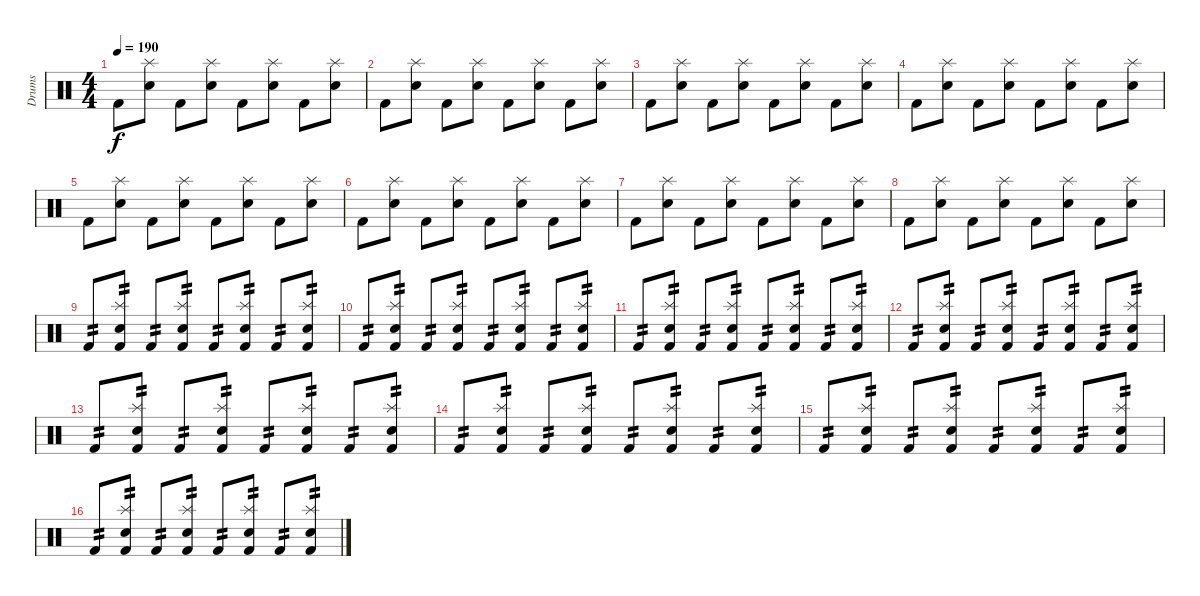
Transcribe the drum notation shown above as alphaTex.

\track ("Drums" "Drums") {instrument percussion}
\staff {score}
\articulation defaults
\ts (4 4)
\tempo 190
\clef neutral
\ks c "Kick (hit) 2".8{dy f}
("Splash (hit)" "Snare (hit) 2").8 "Kick (hit) 2".8 ("Splash (hit)" "Snare (hit) 2").8 "Kick (hit) 2".8 ("Splash (hit)" "Snare (hit) 2").8 "Kick (hit) 2".8 ("Splash (hit)" "Snare (hit) 2").8 |
"Kick (hit) 2".8 ("Splash (hit)" "Snare (hit) 2").8 "Kick (hit) 2".8 ("Splash (hit)" "Snare (hit) 2").8 "Kick (hit) 2".8 ("Splash (hit)" "Snare (hit) 2").8 "Kick (hit) 2".8 ("Splash (hit)" "Snare (hit) 2").8 |
"Kick (hit) 2".8 ("Splash (hit)" "Snare (hit) 2").8 "Kick (hit) 2".8 ("Splash (hit)" "Snare (hit) 2").8 "Kick (hit) 2".8 ("Splash (hit)" "Snare (hit) 2").8 "Kick (hit) 2".8 ("Splash (hit)" "Snare (hit) 2").8 |
"Kick (hit) 2".8 ("Splash (hit)" "Snare (hit) 2").8 "Kick (hit) 2".8 ("Splash (hit)" "Snare (hit) 2").8 "Kick (hit) 2".8 ("Splash (hit)" "Snare (hit) 2").8 "Kick (hit) 2".8 ("Splash (hit)" "Snare (hit) 2").8 |
"Kick (hit) 2".8 ("Splash (hit)" "Snare (hit) 2").8 "Kick (hit) 2".8 ("Splash (hit)" "Snare (hit) 2").8 "Kick (hit) 2".8 ("Splash (hit)" "Snare (hit) 2").8 "Kick (hit) 2".8 ("Splash (hit)" "Snare (hit) 2").8 |
"Kick (hit) 2".8 ("Splash (hit)" "Snare (hit) 2").8 "Kick (hit) 2".8 ("Splash (hit)" "Snare (hit) 2").8 "Kick (hit) 2".8 ("Splash (hit)" "Snare (hit) 2").8 "Kick (hit) 2".8 ("Splash (hit)" "Snare (hit) 2").8 |
"Kick (hit) 2".8 ("Splash (hit)" "Snare (hit) 2").8 "Kick (hit) 2".8 ("Splash (hit)" "Snare (hit) 2").8 "Kick (hit) 2".8 ("Splash (hit)" "Snare (hit) 2").8 "Kick (hit) 2".8 ("Splash (hit)" "Snare (hit) 2").8 |
"Kick (hit) 2".8 ("Splash (hit)" "Snare (hit) 2").8 "Kick (hit) 2".8 ("Splash (hit)" "Snare (hit) 2").8 "Kick (hit) 2".8 ("Splash (hit)" "Snare (hit) 2").8 "Kick (hit) 2".8 ("Splash (hit)" "Snare (hit) 2").8 |
"Kick (hit) 2".8{tp 2} ("Splash (hit)" "Snare (hit) 2" "Kick (hit) 2").8{tp 2} "Kick (hit) 2".8{tp 2} ("Splash (hit)" "Snare (hit) 2" "Kick (hit) 2").8{tp 2} "Kick (hit) 2".8{tp 2} ("Splash (hit)" "Snare (hit) 2" "Kick (hit) 2").8{tp 2} "Kick (hit) 2".8{tp 2} ("Splash (hit)" "Snare (hit) 2" "Kick (hit) 2").8{tp 2} |
"Kick (hit) 2".8{tp 2} ("Splash (hit)" "Snare (hit) 2" "Kick (hit) 2").8{tp 2} "Kick (hit) 2".8{tp 2} ("Splash (hit)" "Snare (hit) 2" "Kick (hit) 2").8{tp 2} "Kick (hit) 2".8{tp 2} ("Splash (hit)" "Snare (hit) 2" "Kick (hit) 2").8{tp 2} "Kick (hit) 2".8{tp 2} ("Splash (hit)" "Snare (hit) 2" "Kick (hit) 2").8{tp 2} |
"Kick (hit) 2".8{tp 2} ("Splash (hit)" "Snare (hit) 2" "Kick (hit) 2").8{tp 2} "Kick (hit) 2".8{tp 2} ("Splash (hit)" "Snare (hit) 2" "Kick (hit) 2").8{tp 2} "Kick (hit) 2".8{tp 2} ("Splash (hit)" "Snare (hit) 2" "Kick (hit) 2").8{tp 2} "Kick (hit) 2".8{tp 2} ("Splash (hit)" "Snare (hit) 2" "Kick (hit) 2").8{tp 2} |
"Kick (hit) 2".8{tp 2} ("Splash (hit)" "Snare (hit) 2" "Kick (hit) 2").8{tp 2} "Kick (hit) 2".8{tp 2} ("Splash (hit)" "Snare (hit) 2" "Kick (hit) 2").8{tp 2} "Kick (hit) 2".8{tp 2} ("Splash (hit)" "Snare (hit) 2" "Kick (hit) 2").8{tp 2} "Kick (hit) 2".8{tp 2} ("Splash (hit)" "Snare (hit) 2" "Kick (hit) 2").8{tp 2} |
"Kick (hit) 2".8{tp 2} ("Splash (hit)" "Snare (hit) 2" "Kick (hit) 2").8{tp 2} "Kick (hit) 2".8{tp 2} ("Splash (hit)" "Snare (hit) 2" "Kick (hit) 2").8{tp 2} "Kick (hit) 2".8{tp 2} ("Splash (hit)" "Snare (hit) 2" "Kick (hit) 2").8{tp 2} "Kick (hit) 2".8{tp 2} ("Splash (hit)" "Snare (hit) 2" "Kick (hit) 2").8{tp 2} |
"Kick (hit) 2".8{tp 2} ("Splash (hit)" "Snare (hit) 2" "Kick (hit) 2").8{tp 2} "Kick (hit) 2".8{tp 2} ("Splash (hit)" "Snare (hit) 2" "Kick (hit) 2").8{tp 2} "Kick (hit) 2".8{tp 2} ("Splash (hit)" "Snare (hit) 2" "Kick (hit) 2").8{tp 2} "Kick (hit) 2".8{tp 2} ("Splash (hit)" "Snare (hit) 2" "Kick (hit) 2").8{tp 2} |
"Kick (hit) 2".8{tp 2} ("Splash (hit)" "Snare (hit) 2" "Kick (hit) 2").8{tp 2} "Kick (hit) 2".8{tp 2} ("Splash (hit)" "Snare (hit) 2" "Kick (hit) 2").8{tp 2} "Kick (hit) 2".8{tp 2} ("Splash (hit)" "Snare (hit) 2" "Kick (hit) 2").8{tp 2} "Kick (hit) 2".8{tp 2} ("Splash (hit)" "Snare (hit) 2" "Kick (hit) 2").8{tp 2} |
"Kick (hit) 2".8{tp 2} ("Splash (hit)" "Snare (hit) 2" "Kick (hit) 2").8{tp 2} "Kick (hit) 2".8{tp 2} ("Splash (hit)" "Snare (hit) 2" "Kick (hit) 2").8{tp 2} "Kick (hit) 2".8{tp 2} ("Splash (hit)" "Snare (hit) 2" "Kick (hit) 2").8{tp 2} "Kick (hit) 2".8{tp 2} ("Splash (hit)" "Snare (hit) 2" "Kick (hit) 2").8{tp 2}
